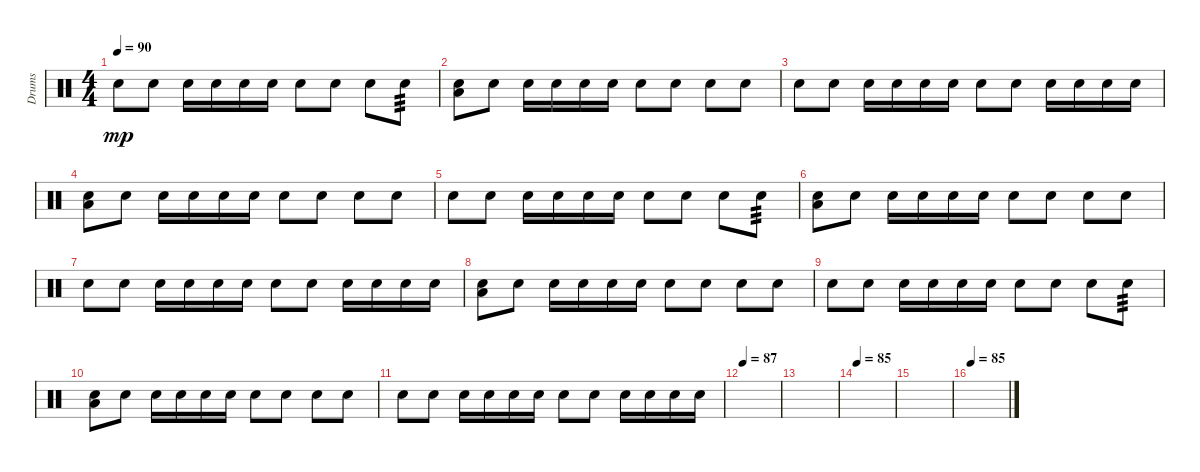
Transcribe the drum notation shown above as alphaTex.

\track ("Drums" "Drums") {instrument percussion}
\staff {score}
\articulation defaults
\ts (4 4)
\tempo 90
\clef neutral
\ks c "Electric Snare (hit)".8{dy mp} "Electric Snare (hit)".8 "Electric Snare (hit)".16 "Electric Snare (hit)".16 "Electric Snare (hit)".16 "Electric Snare (hit)".16 "Electric Snare (hit)".8 "Electric Snare (hit)".8 "Electric Snare (hit)".8 "Electric Snare (hit)".8{tp 3}
|
("Electric Snare (hit)" "Low Floor Tom (hit)").8 "Electric Snare (hit)".8 "Electric Snare (hit)".16 "Electric Snare (hit)".16 "Electric Snare (hit)".16 "Electric Snare (hit)".16 "Electric Snare (hit)".8 "Electric Snare (hit)".8 "Electric Snare (hit)".8 "Electric Snare (hit)".8 |
"Electric Snare (hit)".8 "Electric Snare (hit)".8 "Electric Snare (hit)".16 "Electric Snare (hit)".16 "Electric Snare (hit)".16 "Electric Snare (hit)".16 "Electric Snare (hit)".8 "Electric Snare (hit)".8 "Electric Snare (hit)".16 "Electric Snare (hit)".16 "Electric Snare (hit)".16 "Electric Snare (hit)".16 |
("Electric Snare (hit)" "Low Floor Tom (hit)").8 "Electric Snare (hit)".8 "Electric Snare (hit)".16 "Electric Snare (hit)".16 "Electric Snare (hit)".16 "Electric Snare (hit)".16 "Electric Snare (hit)".8 "Electric Snare (hit)".8 "Electric Snare (hit)".8 "Electric Snare (hit)".8 |
"Electric Snare (hit)".8 "Electric Snare (hit)".8 "Electric Snare (hit)".16 "Electric Snare (hit)".16 "Electric Snare (hit)".16 "Electric Snare (hit)".16 "Electric Snare (hit)".8 "Electric Snare (hit)".8 "Electric Snare (hit)".8 "Electric Snare (hit)".8{tp 3} |
("Electric Snare (hit)" "Low Floor Tom (hit)").8 "Electric Snare (hit)".8 "Electric Snare (hit)".16 "Electric Snare (hit)".16 "Electric Snare (hit)".16 "Electric Snare (hit)".16 "Electric Snare (hit)".8 "Electric Snare (hit)".8 "Electric Snare (hit)".8 "Electric Snare (hit)".8 |
"Electric Snare (hit)".8 "Electric Snare (hit)".8 "Electric Snare (hit)".16 "Electric Snare (hit)".16 "Electric Snare (hit)".16 "Electric Snare (hit)".16 "Electric Snare (hit)".8 "Electric Snare (hit)".8 "Electric Snare (hit)".16 "Electric Snare (hit)".16 "Electric Snare (hit)".16 "Electric Snare (hit)".16 |
("Electric Snare (hit)" "Low Floor Tom (hit)").8 "Electric Snare (hit)".8 "Electric Snare (hit)".16 "Electric Snare (hit)".16 "Electric Snare (hit)".16 "Electric Snare (hit)".16 "Electric Snare (hit)".8 "Electric Snare (hit)".8 "Electric Snare (hit)".8 "Electric Snare (hit)".8 |
"Electric Snare (hit)".8 "Electric Snare (hit)".8 "Electric Snare (hit)".16 "Electric Snare (hit)".16 "Electric Snare (hit)".16 "Electric Snare (hit)".16 "Electric Snare (hit)".8 "Electric Snare (hit)".8 "Electric Snare (hit)".8 "Electric Snare (hit)".8{tp 3} |
("Electric Snare (hit)" "Low Floor Tom (hit)").8 "Electric Snare (hit)".8 "Electric Snare (hit)".16 "Electric Snare (hit)".16 "Electric Snare (hit)".16 "Electric Snare (hit)".16 "Electric Snare (hit)".8 "Electric Snare (hit)".8 "Electric Snare (hit)".8 "Electric Snare (hit)".8 |
"Electric Snare (hit)".8 "Electric Snare (hit)".8 "Electric Snare (hit)".16 "Electric Snare (hit)".16 "Electric Snare (hit)".16 "Electric Snare (hit)".16 "Electric Snare (hit)".8 "Electric Snare (hit)".8 "Electric Snare (hit)".16 "Electric Snare (hit)".16 "Electric Snare (hit)".16 "Electric Snare (hit)".16 |
\tempo 87
|
|
\tempo 85
|
|
\tempo 85
